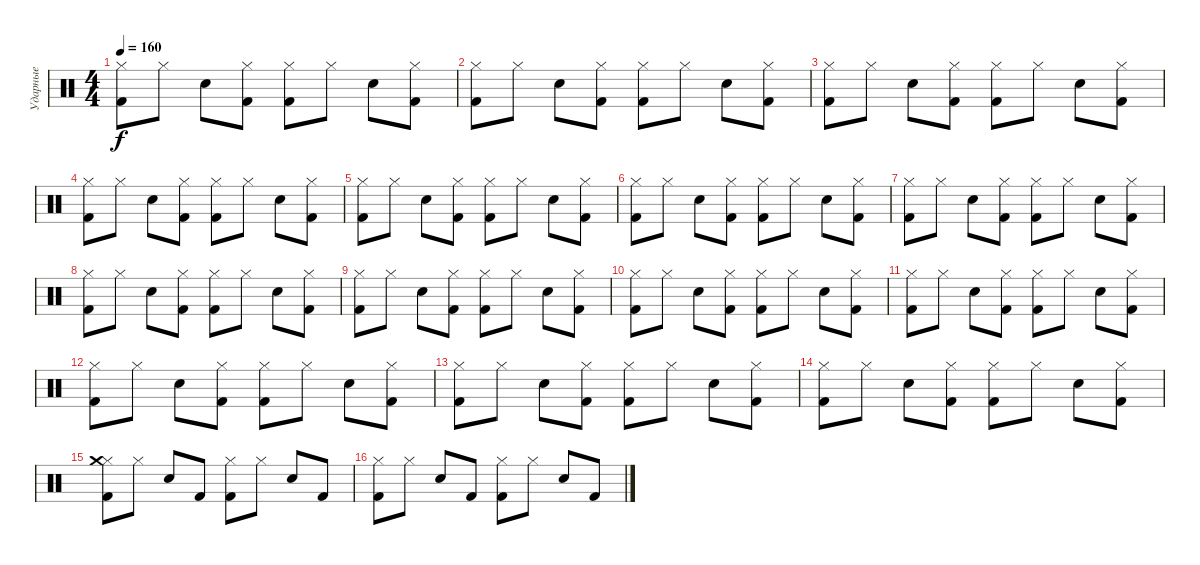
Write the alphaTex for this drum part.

\track ("Ударные" "Ударные") {instrument percussion}
\staff {score}
\articulation defaults
\ts (4 4)
\tempo 160
\clef neutral
\ks c
("Hi-Hat (closed)" "Kick (hit) 2").8{dy f} "Hi-Hat (closed)".8 "Snare (hit) 2".8 ("Hi-Hat (closed)" "Kick (hit) 2").8 ("Hi-Hat (closed)" "Kick (hit) 2").8 "Hi-Hat (closed)".8 "Snare (hit) 2".8 ("Hi-Hat (closed)" "Kick (hit) 2").8 |
("Hi-Hat (closed)" "Kick (hit) 2").8 "Hi-Hat (closed)".8 "Snare (hit) 2".8 ("Hi-Hat (closed)" "Kick (hit) 2").8 ("Hi-Hat (closed)" "Kick (hit) 2").8 "Hi-Hat (closed)".8 "Snare (hit) 2".8 ("Hi-Hat (closed)" "Kick (hit) 2").8 |
("Hi-Hat (closed)" "Kick (hit) 2").8 "Hi-Hat (closed)".8 "Snare (hit) 2".8 ("Hi-Hat (closed)" "Kick (hit) 2").8 ("Hi-Hat (closed)" "Kick (hit) 2").8 "Hi-Hat (closed)".8 "Snare (hit) 2".8 ("Hi-Hat (closed)" "Kick (hit) 2").8 |
("Hi-Hat (closed)" "Kick (hit) 2").8 "Hi-Hat (closed)".8 "Snare (hit) 2".8 ("Hi-Hat (closed)" "Kick (hit) 2").8 ("Hi-Hat (closed)" "Kick (hit) 2").8 "Hi-Hat (closed)".8 "Snare (hit) 2".8 ("Hi-Hat (closed)" "Kick (hit) 2").8 |
("Hi-Hat (closed)" "Kick (hit) 2").8 "Hi-Hat (closed)".8 "Snare (hit) 2".8 ("Hi-Hat (closed)" "Kick (hit) 2").8 ("Hi-Hat (closed)" "Kick (hit) 2").8 "Hi-Hat (closed)".8 "Snare (hit) 2".8 ("Hi-Hat (closed)" "Kick (hit) 2").8 |
("Hi-Hat (closed)" "Kick (hit) 2").8 "Hi-Hat (closed)".8 "Snare (hit) 2".8 ("Hi-Hat (closed)" "Kick (hit) 2").8 ("Hi-Hat (closed)" "Kick (hit) 2").8 "Hi-Hat (closed)".8 "Snare (hit) 2".8 ("Hi-Hat (closed)" "Kick (hit) 2").8 |
("Hi-Hat (closed)" "Kick (hit) 2").8 "Hi-Hat (closed)".8 "Snare (hit) 2".8 ("Hi-Hat (closed)" "Kick (hit) 2").8 ("Hi-Hat (closed)" "Kick (hit) 2").8 "Hi-Hat (closed)".8 "Snare (hit) 2".8 ("Hi-Hat (closed)" "Kick (hit) 2").8 |
("Hi-Hat (closed)" "Kick (hit) 2").8 "Hi-Hat (closed)".8 "Snare (hit) 2".8 ("Hi-Hat (closed)" "Kick (hit) 2").8 ("Hi-Hat (closed)" "Kick (hit) 2").8 "Hi-Hat (closed)".8 "Snare (hit) 2".8 ("Hi-Hat (closed)" "Kick (hit) 2").8 |
("Hi-Hat (closed)" "Kick (hit) 2").8 "Hi-Hat (closed)".8 "Snare (hit) 2".8 ("Hi-Hat (closed)" "Kick (hit) 2").8 ("Hi-Hat (closed)" "Kick (hit) 2").8 "Hi-Hat (closed)".8 "Snare (hit) 2".8 ("Hi-Hat (closed)" "Kick (hit) 2").8 |
("Hi-Hat (closed)" "Kick (hit) 2").8 "Hi-Hat (closed)".8 "Snare (hit) 2".8 ("Hi-Hat (closed)" "Kick (hit) 2").8 ("Hi-Hat (closed)" "Kick (hit) 2").8 "Hi-Hat (closed)".8 "Snare (hit) 2".8 ("Hi-Hat (closed)" "Kick (hit) 2").8 |
("Hi-Hat (closed)" "Kick (hit) 2").8 "Hi-Hat (closed)".8 "Snare (hit) 2".8 ("Hi-Hat (closed)" "Kick (hit) 2").8 ("Hi-Hat (closed)" "Kick (hit) 2").8 "Hi-Hat (closed)".8 "Snare (hit) 2".8 ("Hi-Hat (closed)" "Kick (hit) 2").8 |
("Hi-Hat (closed)" "Kick (hit) 2").8 "Hi-Hat (closed)".8 "Snare (hit) 2".8 ("Hi-Hat (closed)" "Kick (hit) 2").8 ("Hi-Hat (closed)" "Kick (hit) 2").8 "Hi-Hat (closed)".8 "Snare (hit) 2".8 ("Hi-Hat (closed)" "Kick (hit) 2").8 |
("Hi-Hat (closed)" "Kick (hit) 2").8 "Hi-Hat (closed)".8 "Snare (hit) 2".8 ("Hi-Hat (closed)" "Kick (hit) 2").8 ("Hi-Hat (closed)" "Kick (hit) 2").8 "Hi-Hat (closed)".8 "Snare (hit) 2".8 ("Hi-Hat (closed)" "Kick (hit) 2").8 |
("Hi-Hat (closed)" "Kick (hit) 2").8 "Hi-Hat (closed)".8 "Snare (hit) 2".8 ("Hi-Hat (closed)" "Kick (hit) 2").8 ("Hi-Hat (closed)" "Kick (hit) 2").8 "Hi-Hat (closed)".8 "Snare (hit) 2".8 ("Hi-Hat (closed)" "Kick (hit) 2").8 |
("Hi-Hat (closed)" "Kick (hit) 2" "Crash medium (hit)").8 "Hi-Hat (closed)".8 "Snare (hit) 2".8 "Kick (hit) 2".8 ("Hi-Hat (closed)" "Kick (hit) 2").8 "Hi-Hat (closed)".8 "Snare (hit) 2".8 "Kick (hit) 2".8 |
("Hi-Hat (closed)" "Kick (hit) 2").8 "Hi-Hat (closed)".8 "Snare (hit) 2".8 "Kick (hit) 2".8 ("Hi-Hat (closed)" "Kick (hit) 2").8 "Hi-Hat (closed)".8 "Snare (hit) 2".8 "Kick (hit) 2".8
